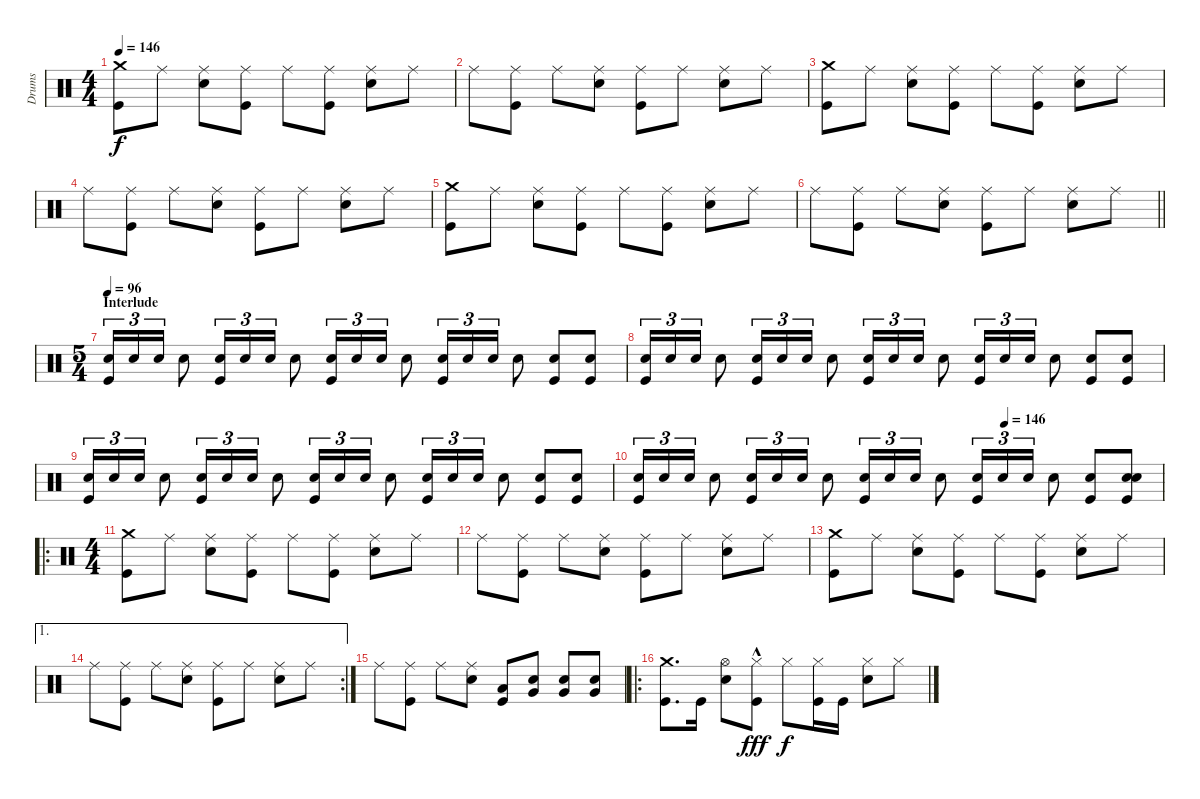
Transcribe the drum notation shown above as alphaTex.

\track ("Drums" "Drums") {instrument percussion}
\staff {score}
\articulation defaults
\ts (4 4)
\tempo 146
\clef neutral
\ks c
("Crash medium (hit)" "Kick (hit)").8{dy f} "Ride (middle)".8 ("Ride (middle)" "Electric Snare (hit)").8 ("Ride (middle)" "Kick (hit)").8 "Ride (middle)".8 ("Ride (middle)" "Kick (hit)").8 ("Ride (middle)" "Electric Snare (hit)").8 "Ride (middle)".8 |
"Ride (middle)".8 ("Ride (middle)" "Kick (hit)").8 "Ride (middle)".8 ("Ride (middle)" "Electric Snare (hit)").8 ("Ride (middle)" "Kick (hit)").8 "Ride (middle)".8 ("Ride (middle)" "Electric Snare (hit)").8 "Ride (middle)".8 |
("Crash medium (hit)" "Kick (hit)").8 "Ride (middle)".8 ("Ride (middle)" "Electric Snare (hit)").8 ("Ride (middle)" "Kick (hit)").8 "Ride (middle)".8 ("Ride (middle)" "Kick (hit)").8 ("Ride (middle)" "Electric Snare (hit)").8 "Ride (middle)".8 |
"Ride (middle)".8 ("Ride (middle)" "Kick (hit)").8 "Ride (middle)".8 ("Ride (middle)" "Electric Snare (hit)").8 ("Ride (middle)" "Kick (hit)").8 "Ride (middle)".8 ("Ride (middle)" "Electric Snare (hit)").8 "Ride (middle)".8 |
("Crash medium (hit)" "Kick (hit)").8 "Ride (middle)".8 ("Ride (middle)" "Electric Snare (hit)").8 ("Ride (middle)" "Kick (hit)").8 "Ride (middle)".8 ("Ride (middle)" "Kick (hit)").8 ("Ride (middle)" "Electric Snare (hit)").8 "Ride (middle)".8 |
\barLineRight lightlight "Ride (middle)".8
("Ride (middle)" "Kick (hit)").8 "Ride (middle)".8 ("Ride (middle)" "Electric Snare (hit)").8 ("Ride (middle)" "Kick (hit)").8 "Ride (middle)".8 ("Ride (middle)" "Electric Snare (hit)").8 "Ride (middle)".8 |
\ts (5 4)
\section ("" "Interlude")
\tempo 96
("Electric Snare (hit)" "Kick (hit)").16{tu (3 2)} "Electric Snare (hit)".16{tu (3 2)} "Electric Snare (hit)".16{tu (3 2)} "Electric Snare (hit)".8 ("Electric Snare (hit)" "Kick (hit)").16{tu (3 2)} "Electric Snare (hit)".16{tu (3 2)} "Electric Snare (hit)".16{tu (3 2)} "Electric Snare (hit)".8 ("Electric Snare (hit)" "Kick (hit)").16{tu (3 2)} "Electric Snare (hit)".16{tu (3 2)} "Electric Snare (hit)".16{tu (3 2)} "Electric Snare (hit)".8 ("Electric Snare (hit)" "Kick (hit)").16{tu (3 2)} "Electric Snare (hit)".16{tu (3 2)} "Electric Snare (hit)".16{tu (3 2)} "Electric Snare (hit)".8 ("Electric Snare (hit)" "Kick (hit)").8 ("Electric Snare (hit)" "Kick (hit)").8 |
("Electric Snare (hit)" "Kick (hit)").16{tu (3 2)} "Electric Snare (hit)".16{tu (3 2)} "Electric Snare (hit)".16{tu (3 2)} "Electric Snare (hit)".8 ("Electric Snare (hit)" "Kick (hit)").16{tu (3 2)} "Electric Snare (hit)".16{tu (3 2)} "Electric Snare (hit)".16{tu (3 2)} "Electric Snare (hit)".8 ("Electric Snare (hit)" "Kick (hit)").16{tu (3 2)} "Electric Snare (hit)".16{tu (3 2)} "Electric Snare (hit)".16{tu (3 2)} "Electric Snare (hit)".8 ("Electric Snare (hit)" "Kick (hit)").16{tu (3 2)} "Electric Snare (hit)".16{tu (3 2)} "Electric Snare (hit)".16{tu (3 2)} "Electric Snare (hit)".8 ("Electric Snare (hit)" "Kick (hit)").8 ("Electric Snare (hit)" "Kick (hit)").8 |
("Electric Snare (hit)" "Kick (hit)").16{tu (3 2)} "Electric Snare (hit)".16{tu (3 2)} "Electric Snare (hit)".16{tu (3 2)} "Electric Snare (hit)".8 ("Electric Snare (hit)" "Kick (hit)").16{tu (3 2)} "Electric Snare (hit)".16{tu (3 2)} "Electric Snare (hit)".16{tu (3 2)} "Electric Snare (hit)".8 ("Electric Snare (hit)" "Kick (hit)").16{tu (3 2)} "Electric Snare (hit)".16{tu (3 2)} "Electric Snare (hit)".16{tu (3 2)} "Electric Snare (hit)".8 ("Electric Snare (hit)" "Kick (hit)").16{tu (3 2)} "Electric Snare (hit)".16{tu (3 2)} "Electric Snare (hit)".16{tu (3 2)} "Electric Snare (hit)".8 ("Electric Snare (hit)" "Kick (hit)").8 ("Electric Snare (hit)" "Kick (hit)").8 |
\tempo (146 0.7)
("Electric Snare (hit)" "Kick (hit)").16{tu (3 2)} "Electric Snare (hit)".16{tu (3 2)} "Electric Snare (hit)".16{tu (3 2)} "Electric Snare (hit)".8 ("Electric Snare (hit)" "Kick (hit)").16{tu (3 2)} "Electric Snare (hit)".16{tu (3 2)} "Electric Snare (hit)".16{tu (3 2)} "Electric Snare (hit)".8 ("Electric Snare (hit)" "Kick (hit)").16{tu (3 2)} "Electric Snare (hit)".16{tu (3 2)} "Electric Snare (hit)".16{tu (3 2)} "Electric Snare (hit)".8 ("Electric Snare (hit)" "Kick (hit)").16{tu (3 2)} "Electric Snare (hit)".16{tu (3 2)} "Electric Snare (hit)".16{tu (3 2)} "Electric Snare (hit)".8 ("Electric Snare (hit)" "Kick (hit)").8 ("Electric Snare (hit)" "Electric Snare (hit)" "Kick (hit)").8 |
\ro
\ts (4 4)
("Crash medium (hit)" "Kick (hit)").8 "Ride (middle)".8 ("Ride (middle)" "Electric Snare (hit)").8 ("Ride (middle)" "Kick (hit)").8 "Ride (middle)".8 ("Ride (middle)" "Kick (hit)").8 ("Ride (middle)" "Electric Snare (hit)").8 "Ride (middle)".8 |
"Ride (middle)".8 ("Ride (middle)" "Kick (hit)").8 "Ride (middle)".8 ("Ride (middle)" "Electric Snare (hit)").8 ("Ride (middle)" "Kick (hit)").8 "Ride (middle)".8 ("Ride (middle)" "Electric Snare (hit)").8 "Ride (middle)".8 |
("Crash medium (hit)" "Kick (hit)").8 "Ride (middle)".8 ("Ride (middle)" "Electric Snare (hit)").8 ("Ride (middle)" "Kick (hit)").8 "Ride (middle)".8 ("Ride (middle)" "Kick (hit)").8 ("Ride (middle)" "Electric Snare (hit)").8 "Ride (middle)".8 |
\ae 1
\rc 2 "Ride (middle)".8
("Ride (middle)" "Kick (hit)").8 "Ride (middle)".8 ("Ride (middle)" "Electric Snare (hit)").8 ("Ride (middle)" "Kick (hit)").8 "Ride (middle)".8 ("Ride (middle)" "Electric Snare (hit)").8 "Ride (middle)".8 |
"Ride (middle)".8 ("Ride (middle)" "Kick (hit)").8 "Ride (middle)".8 ("Ride (middle)" "Electric Snare (hit)").8 ("Low Floor Tom (hit)" "Kick (hit)").8 ("Electric Snare (hit)" "Very Low Tom (hit)").8 ("Electric Snare (hit)" "Very Low Tom (hit)").8 ("Electric Snare (hit)" "Very Low Tom (hit)").8 |
\ro
("Crash medium (hit)" "Kick (hit)").8{d} "Kick (hit)".16 ("Hi-Hat (open)" "Electric Snare (hit)").8 ("Hi-Hat (closed)"{hac} "Kick (hit)"{hac}).8{dy fff} "Hi-Hat (closed)".8{dy f} ("Hi-Hat (closed)" "Kick (hit)").16 "Kick (hit)".16 ("Hi-Hat (closed)" "Electric Snare (hit)").8 "Hi-Hat (closed)".8
